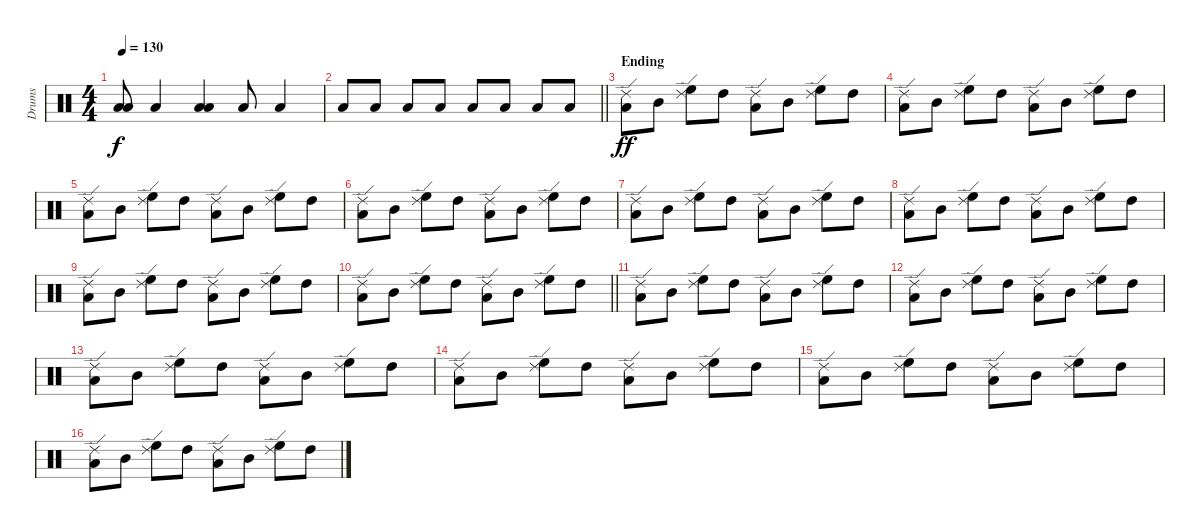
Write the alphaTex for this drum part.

\track ("Drums" "Drums") {instrument percussion}
\staff {score}
\articulation defaults
\ts (4 4)
\tempo 130
\clef neutral
\ks c
("Low Tom (hit)" "Low Floor Tom (hit)").8{dy f} "Low Tom (hit)".4 ("Low Tom (hit)" "Low Floor Tom (hit)").4 "Low Tom (hit)".8 "Low Tom (hit)".4 |
\barLineRight lightlight "Low Tom (hit)".8 "Low Tom (hit)".8 "Low Tom (hit)".8 "Low Tom (hit)".8 "Low Tom (hit)".8 "Low Tom (hit)".8 "Low Tom (hit)".8 "Low Tom (hit)".8
|
\section ("" "Ending")
("Low Tom (hit)" "Ride (edge) 2").8{dy ff} "Mid Tom (hit)".8 ("High Floor Tom (hit)" "Ride (edge) 2").8 "High Tom (hit)".8 ("Low Tom (hit)" "Ride (edge) 2").8 "Mid Tom (hit)".8 ("High Floor Tom (hit)" "Ride (edge) 2").8 "High Tom (hit)".8 |
("Low Tom (hit)" "Ride (edge) 2").8 "Mid Tom (hit)".8 ("High Floor Tom (hit)" "Ride (edge) 2").8 "High Tom (hit)".8 ("Low Tom (hit)" "Ride (edge) 2").8 "Mid Tom (hit)".8 ("High Floor Tom (hit)" "Ride (edge) 2").8 "High Tom (hit)".8 |
("Low Tom (hit)" "Ride (edge) 2").8 "Mid Tom (hit)".8 ("High Floor Tom (hit)" "Ride (edge) 2").8 "High Tom (hit)".8 ("Low Tom (hit)" "Ride (edge) 2").8 "Mid Tom (hit)".8 ("High Floor Tom (hit)" "Ride (edge) 2").8 "High Tom (hit)".8 |
("Low Tom (hit)" "Ride (edge) 2").8 "Mid Tom (hit)".8 ("High Floor Tom (hit)" "Ride (edge) 2").8 "High Tom (hit)".8 ("Low Tom (hit)" "Ride (edge) 2").8 "Mid Tom (hit)".8 ("High Floor Tom (hit)" "Ride (edge) 2").8 "High Tom (hit)".8 |
("Low Tom (hit)" "Ride (edge) 2").8 "Mid Tom (hit)".8 ("High Floor Tom (hit)" "Ride (edge) 2").8 "High Tom (hit)".8 ("Low Tom (hit)" "Ride (edge) 2").8 "Mid Tom (hit)".8 ("High Floor Tom (hit)" "Ride (edge) 2").8 "High Tom (hit)".8 |
("Low Tom (hit)" "Ride (edge) 2").8 "Mid Tom (hit)".8 ("High Floor Tom (hit)" "Ride (edge) 2").8 "High Tom (hit)".8 ("Low Tom (hit)" "Ride (edge) 2").8 "Mid Tom (hit)".8 ("High Floor Tom (hit)" "Ride (edge) 2").8 "High Tom (hit)".8 |
("Low Tom (hit)" "Ride (edge) 2").8 "Mid Tom (hit)".8 ("High Floor Tom (hit)" "Ride (edge) 2").8 "High Tom (hit)".8 ("Low Tom (hit)" "Ride (edge) 2").8 "Mid Tom (hit)".8 ("High Floor Tom (hit)" "Ride (edge) 2").8 "High Tom (hit)".8 |
\barLineRight lightlight
("Low Tom (hit)" "Ride (edge) 2").8 "Mid Tom (hit)".8 ("High Floor Tom (hit)" "Ride (edge) 2").8 "High Tom (hit)".8 ("Low Tom (hit)" "Ride (edge) 2").8 "Mid Tom (hit)".8 ("High Floor Tom (hit)" "Ride (edge) 2").8 "High Tom (hit)".8 |
("Low Tom (hit)" "Ride (edge) 2").8 "Mid Tom (hit)".8 ("High Floor Tom (hit)" "Ride (edge) 2").8 "High Tom (hit)".8 ("Low Tom (hit)" "Ride (edge) 2").8 "Mid Tom (hit)".8 ("High Floor Tom (hit)" "Ride (edge) 2").8 "High Tom (hit)".8 |
("Low Tom (hit)" "Ride (edge) 2").8 "Mid Tom (hit)".8 ("High Floor Tom (hit)" "Ride (edge) 2").8 "High Tom (hit)".8 ("Low Tom (hit)" "Ride (edge) 2").8 "Mid Tom (hit)".8 ("High Floor Tom (hit)" "Ride (edge) 2").8 "High Tom (hit)".8 |
("Low Tom (hit)" "Ride (edge) 2").8 "Mid Tom (hit)".8 ("High Floor Tom (hit)" "Ride (edge) 2").8 "High Tom (hit)".8 ("Low Tom (hit)" "Ride (edge) 2").8 "Mid Tom (hit)".8 ("High Floor Tom (hit)" "Ride (edge) 2").8 "High Tom (hit)".8 |
("Low Tom (hit)" "Ride (edge) 2").8 "Mid Tom (hit)".8 ("High Floor Tom (hit)" "Ride (edge) 2").8 "High Tom (hit)".8 ("Low Tom (hit)" "Ride (edge) 2").8 "Mid Tom (hit)".8 ("High Floor Tom (hit)" "Ride (edge) 2").8 "High Tom (hit)".8 |
("Low Tom (hit)" "Ride (edge) 2").8 "Mid Tom (hit)".8 ("High Floor Tom (hit)" "Ride (edge) 2").8 "High Tom (hit)".8 ("Low Tom (hit)" "Ride (edge) 2").8 "Mid Tom (hit)".8 ("High Floor Tom (hit)" "Ride (edge) 2").8 "High Tom (hit)".8 |
("Low Tom (hit)" "Ride (edge) 2").8 "Mid Tom (hit)".8 ("High Floor Tom (hit)" "Ride (edge) 2").8 "High Tom (hit)".8 ("Low Tom (hit)" "Ride (edge) 2").8 "Mid Tom (hit)".8 ("High Floor Tom (hit)" "Ride (edge) 2").8 "High Tom (hit)".8
